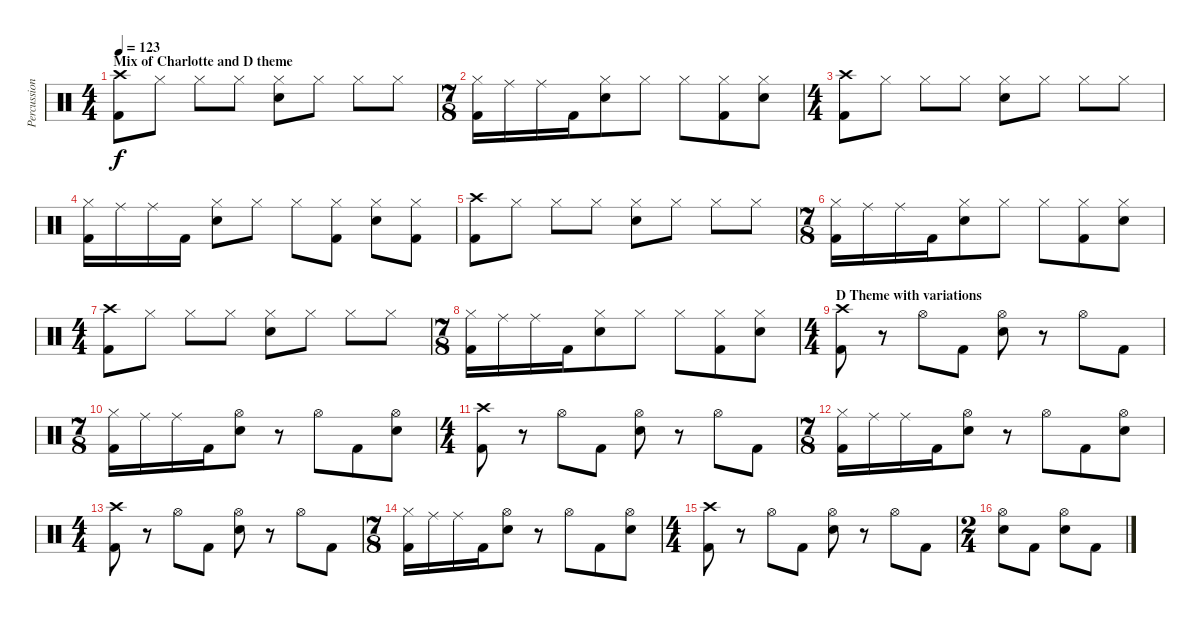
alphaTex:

\track ("Percussion" "Percussion") {instrument percussion}
\staff {score}
\articulation defaults
\ts (4 4)
\section ("" "Mix of Charlotte and D theme")
\tempo 123
\clef neutral
\ks c
("Crash high (hit)" "Kick (hit) 2").8{dy f} "Hi-Hat (closed)".8 "Hi-Hat (closed)".8 "Hi-Hat (closed)".8 ("Hi-Hat (closed)" "Electric Snare (hit)").8 "Hi-Hat (closed)".8 "Hi-Hat (closed)".8 "Hi-Hat (closed)".8 |
\ts (7 8)
("Hi-Hat (closed)" "Kick (hit) 2").16 "Ride (middle)".16 "Ride (middle)".16 "Kick (hit) 2".16 ("Hi-Hat (closed)" "Electric Snare (hit)").8 "Hi-Hat (closed)".8 "Hi-Hat (closed)".8 ("Hi-Hat (closed)" "Kick (hit) 2").8 ("Hi-Hat (closed)" "Electric Snare (hit)").8 |
\ts (4 4)
("Crash high (hit)" "Kick (hit) 2").8 "Hi-Hat (closed)".8 "Hi-Hat (closed)".8 "Hi-Hat (closed)".8 ("Hi-Hat (closed)" "Electric Snare (hit)").8 "Hi-Hat (closed)".8 "Hi-Hat (closed)".8 "Hi-Hat (closed)".8 |
("Hi-Hat (closed)" "Kick (hit) 2").16 "Ride (middle)".16 "Ride (middle)".16 "Kick (hit) 2".16 ("Hi-Hat (closed)" "Electric Snare (hit)").8 "Hi-Hat (closed)".8 "Hi-Hat (closed)".8 ("Hi-Hat (closed)" "Kick (hit) 2").8 ("Hi-Hat (closed)" "Electric Snare (hit)").8 ("Hi-Hat (closed)" "Kick (hit) 2").8 |
("Crash high (hit)" "Kick (hit) 2").8 "Hi-Hat (closed)".8 "Hi-Hat (closed)".8 "Hi-Hat (closed)".8 ("Hi-Hat (closed)" "Electric Snare (hit)").8 "Hi-Hat (closed)".8 "Hi-Hat (closed)".8 "Hi-Hat (closed)".8 |
\ts (7 8)
("Hi-Hat (closed)" "Kick (hit) 2").16 "Ride (middle)".16 "Ride (middle)".16 "Kick (hit) 2".16 ("Hi-Hat (closed)" "Electric Snare (hit)").8 "Hi-Hat (closed)".8 "Hi-Hat (closed)".8 ("Hi-Hat (closed)" "Kick (hit) 2").8 ("Hi-Hat (closed)" "Electric Snare (hit)").8 |
\ts (4 4)
("Crash high (hit)" "Kick (hit) 2").8 "Hi-Hat (closed)".8 "Hi-Hat (closed)".8 "Hi-Hat (closed)".8 ("Hi-Hat (closed)" "Electric Snare (hit)").8 "Hi-Hat (closed)".8 "Hi-Hat (closed)".8 "Hi-Hat (closed)".8 |
\ts (7 8)
("Hi-Hat (closed)" "Kick (hit) 2").16 "Ride (middle)".16 "Ride (middle)".16 "Kick (hit) 2".16 ("Hi-Hat (closed)" "Electric Snare (hit)").8 "Hi-Hat (closed)".8 "Hi-Hat (closed)".8 ("Hi-Hat (closed)" "Kick (hit) 2").8 ("Hi-Hat (closed)" "Electric Snare (hit)").8 |
\ts (4 4)
\section ("" "D Theme with variations")
("Crash high (hit)" "Kick (hit) 2").8 r.8 "Hi-Hat (open)".8 "Kick (hit) 2".8 ("Hi-Hat (open)" "Electric Snare (hit)").8 r.8 "Hi-Hat (open)".8 "Kick (hit) 2".8 |
\ts (7 8)
("Hi-Hat (closed)" "Kick (hit) 2").16 "Ride (middle)".16 "Ride (middle)".16 "Kick (hit) 2".16 ("Hi-Hat (open)" "Electric Snare (hit)").8 r.8 "Hi-Hat (open)".8 "Kick (hit) 2".8 ("Hi-Hat (open)" "Electric Snare (hit)").8 |
\ts (4 4)
("Crash high (hit)" "Kick (hit) 2").8 r.8 "Hi-Hat (open)".8 "Kick (hit) 2".8 ("Hi-Hat (open)" "Electric Snare (hit)").8 r.8 "Hi-Hat (open)".8 "Kick (hit) 2".8 |
\ts (7 8)
("Hi-Hat (closed)" "Kick (hit) 2").16 "Ride (middle)".16 "Ride (middle)".16 "Kick (hit) 2".16 ("Hi-Hat (open)" "Electric Snare (hit)").8 r.8 "Hi-Hat (open)".8 "Kick (hit) 2".8 ("Hi-Hat (open)" "Electric Snare (hit)").8 |
\ts (4 4)
("Crash high (hit)" "Kick (hit) 2").8 r.8 "Hi-Hat (open)".8 "Kick (hit) 2".8 ("Hi-Hat (open)" "Electric Snare (hit)").8 r.8 "Hi-Hat (open)".8 "Kick (hit) 2".8 |
\ts (7 8)
("Hi-Hat (closed)" "Kick (hit) 2").16 "Ride (middle)".16 "Ride (middle)".16 "Kick (hit) 2".16 ("Hi-Hat (open)" "Electric Snare (hit)").8 r.8 "Hi-Hat (open)".8 "Kick (hit) 2".8 ("Hi-Hat (open)" "Electric Snare (hit)").8 |
\ts (4 4)
("Crash high (hit)" "Kick (hit) 2").8 r.8 "Hi-Hat (open)".8 "Kick (hit) 2".8 ("Hi-Hat (open)" "Electric Snare (hit)").8 r.8 "Hi-Hat (open)".8 "Kick (hit) 2".8 |
\ts (2 4)
("Hi-Hat (open)" "Electric Snare (hit)").8 "Kick (hit) 2".8 ("Hi-Hat (open)" "Electric Snare (hit)").8 "Kick (hit) 2".8
